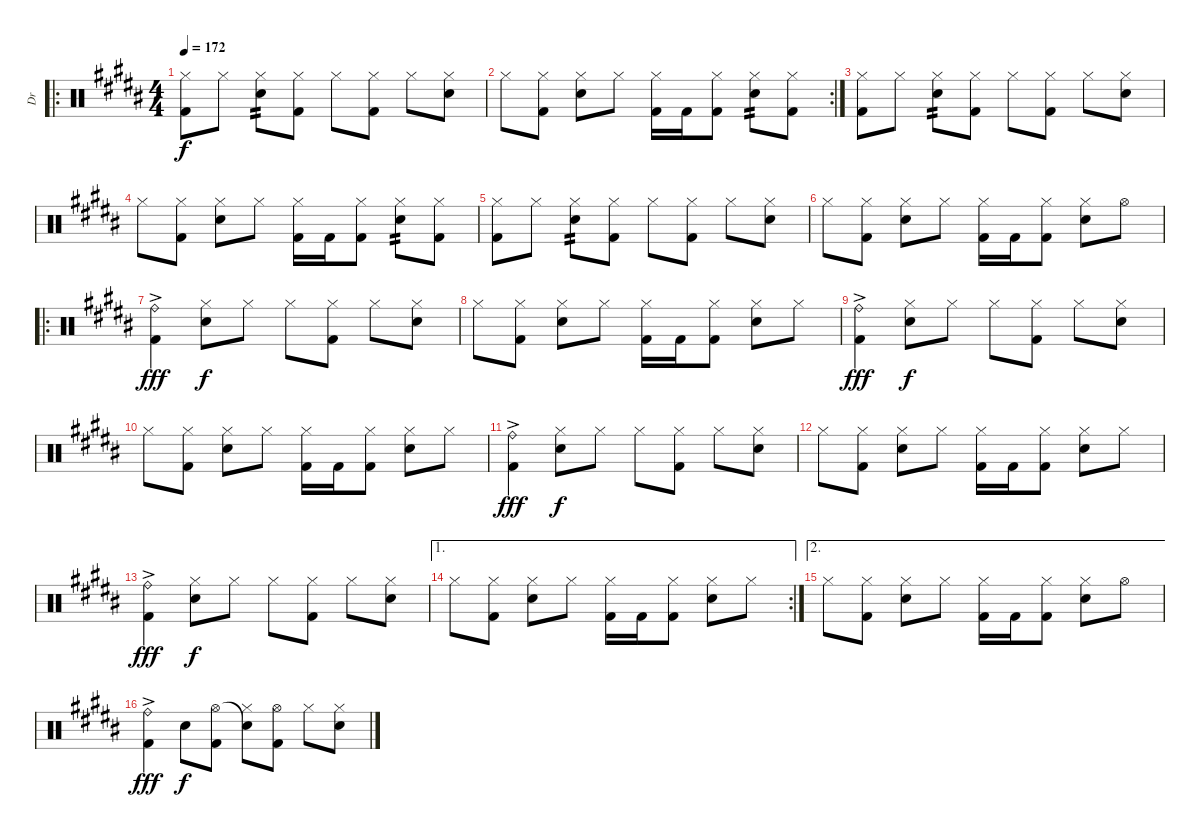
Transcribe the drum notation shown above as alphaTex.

\track ("Dr" "Dr") {instrument percussion}
\staff {score}
\articulation defaults
\ro
\ts (4 4)
\tempo 172
\clef neutral
\ks b
("Hi-Hat (closed)" "Kick (hit) 2").8{dy f} "Hi-Hat (closed)".8 ("Hi-Hat (closed)" "Electric Snare (hit)").8{tp 2} ("Hi-Hat (closed)" "Kick (hit) 2").8 "Hi-Hat (closed)".8 ("Hi-Hat (closed)" "Kick (hit) 2").8 "Hi-Hat (closed)".8 ("Hi-Hat (closed)" "Electric Snare (hit)").8 |
\rc 2 "Hi-Hat (closed)".8
("Hi-Hat (closed)" "Kick (hit) 2").8 ("Hi-Hat (closed)" "Electric Snare (hit)").8 "Hi-Hat (closed)".8 ("Hi-Hat (closed)" "Kick (hit) 2").16 "Kick (hit) 2".16 ("Hi-Hat (closed)" "Kick (hit) 2").8 ("Hi-Hat (closed)" "Electric Snare (hit)").8{tp 2} ("Hi-Hat (closed)" "Kick (hit) 2").8 |
("Hi-Hat (closed)" "Kick (hit) 2").8 "Hi-Hat (closed)".8 ("Hi-Hat (closed)" "Electric Snare (hit)").8{tp 2} ("Hi-Hat (closed)" "Kick (hit) 2").8 "Hi-Hat (closed)".8 ("Hi-Hat (closed)" "Kick (hit) 2").8 "Hi-Hat (closed)".8 ("Hi-Hat (closed)" "Electric Snare (hit)").8 |
"Hi-Hat (closed)".8 ("Hi-Hat (closed)" "Kick (hit) 2").8 ("Hi-Hat (closed)" "Electric Snare (hit)").8 "Hi-Hat (closed)".8 ("Hi-Hat (closed)" "Kick (hit) 2").16 "Kick (hit) 2".16 ("Hi-Hat (closed)" "Kick (hit) 2").8 ("Hi-Hat (closed)" "Electric Snare (hit)").8{tp 2} ("Hi-Hat (closed)" "Kick (hit) 2").8 |
("Hi-Hat (closed)" "Kick (hit) 2").8 "Hi-Hat (closed)".8 ("Hi-Hat (closed)" "Electric Snare (hit)").8{tp 2} ("Hi-Hat (closed)" "Kick (hit) 2").8 "Hi-Hat (closed)".8 ("Hi-Hat (closed)" "Kick (hit) 2").8 "Hi-Hat (closed)".8 ("Hi-Hat (closed)" "Electric Snare (hit)").8 |
"Hi-Hat (closed)".8 ("Hi-Hat (closed)" "Kick (hit) 2").8 ("Hi-Hat (closed)" "Electric Snare (hit)").8 "Hi-Hat (closed)".8 ("Hi-Hat (closed)" "Kick (hit) 2").16 "Kick (hit) 2".16 ("Hi-Hat (closed)" "Kick (hit) 2").8 ("Hi-Hat (closed)" "Electric Snare (hit)").8 "Hi-Hat (open)".8 |
\ro
("Ride (bell)"{ac} "Kick (hit) 2"{ac}).4{dy fff} ("Hi-Hat (closed)" "Electric Snare (hit)").8{dy f} "Hi-Hat (closed)".8 "Hi-Hat (closed)".8 ("Hi-Hat (closed)" "Kick (hit) 2").8 "Hi-Hat (closed)".8 ("Hi-Hat (closed)" "Electric Snare (hit)").8 |
"Hi-Hat (closed)".8 ("Hi-Hat (closed)" "Kick (hit) 2").8 ("Hi-Hat (closed)" "Electric Snare (hit)").8 "Hi-Hat (closed)".8 ("Hi-Hat (closed)" "Kick (hit) 2").16 "Kick (hit) 2".16 ("Hi-Hat (closed)" "Kick (hit) 2").8 ("Hi-Hat (closed)" "Electric Snare (hit)").8 "Hi-Hat (closed)".8 |
("Ride (bell)"{ac} "Kick (hit) 2"{ac}).4{dy fff} ("Hi-Hat (closed)" "Electric Snare (hit)").8{dy f} "Hi-Hat (closed)".8 "Hi-Hat (closed)".8 ("Hi-Hat (closed)" "Kick (hit) 2").8 "Hi-Hat (closed)".8 ("Hi-Hat (closed)" "Electric Snare (hit)").8 |
"Hi-Hat (closed)".8 ("Hi-Hat (closed)" "Kick (hit) 2").8 ("Hi-Hat (closed)" "Electric Snare (hit)").8 "Hi-Hat (closed)".8 ("Hi-Hat (closed)" "Kick (hit) 2").16 "Kick (hit) 2".16 ("Hi-Hat (closed)" "Kick (hit) 2").8 ("Hi-Hat (closed)" "Electric Snare (hit)").8 "Hi-Hat (closed)".8 |
("Ride (bell)"{ac} "Kick (hit) 2"{ac}).4{dy fff} ("Hi-Hat (closed)" "Electric Snare (hit)").8{dy f} "Hi-Hat (closed)".8 "Hi-Hat (closed)".8 ("Hi-Hat (closed)" "Kick (hit) 2").8 "Hi-Hat (closed)".8 ("Hi-Hat (closed)" "Electric Snare (hit)").8 |
"Hi-Hat (closed)".8 ("Hi-Hat (closed)" "Kick (hit) 2").8 ("Hi-Hat (closed)" "Electric Snare (hit)").8 "Hi-Hat (closed)".8 ("Hi-Hat (closed)" "Kick (hit) 2").16 "Kick (hit) 2".16 ("Hi-Hat (closed)" "Kick (hit) 2").8 ("Hi-Hat (closed)" "Electric Snare (hit)").8 "Hi-Hat (closed)".8 |
("Ride (bell)"{ac} "Kick (hit) 2"{ac}).4{dy fff} ("Hi-Hat (closed)" "Electric Snare (hit)").8{dy f} "Hi-Hat (closed)".8 "Hi-Hat (closed)".8 ("Hi-Hat (closed)" "Kick (hit) 2").8 "Hi-Hat (closed)".8 ("Hi-Hat (closed)" "Electric Snare (hit)").8 |
\ae 1
\rc 2 "Hi-Hat (closed)".8
("Hi-Hat (closed)" "Kick (hit) 2").8 ("Hi-Hat (closed)" "Electric Snare (hit)").8 "Hi-Hat (closed)".8 ("Hi-Hat (closed)" "Kick (hit) 2").16 "Kick (hit) 2".16 ("Hi-Hat (closed)" "Kick (hit) 2").8 ("Hi-Hat (closed)" "Electric Snare (hit)").8 "Hi-Hat (closed)".8 |
\ae 2 "Hi-Hat (closed)".8
("Hi-Hat (closed)" "Kick (hit) 2").8 ("Hi-Hat (closed)" "Electric Snare (hit)").8 "Hi-Hat (closed)".8 ("Hi-Hat (closed)" "Kick (hit) 2").16 "Kick (hit) 2".16 ("Hi-Hat (closed)" "Kick (hit) 2").8 ("Hi-Hat (closed)" "Electric Snare (hit)").8 "Hi-Hat (open)".8 |
("Ride (bell)"{ac} "Kick (hit) 2"{ac}).4{dy fff} "Electric Snare (hit)".8{dy f} ("Hi-Hat (open)" "Kick (hit) 2").8 ("Snare (hit)"{t} "Hi-Hat (closed)").8 ("Hi-Hat (open)" "Kick (hit) 2").8 "Hi-Hat (closed)".8 ("Hi-Hat (closed)" "Electric Snare (hit)").8
